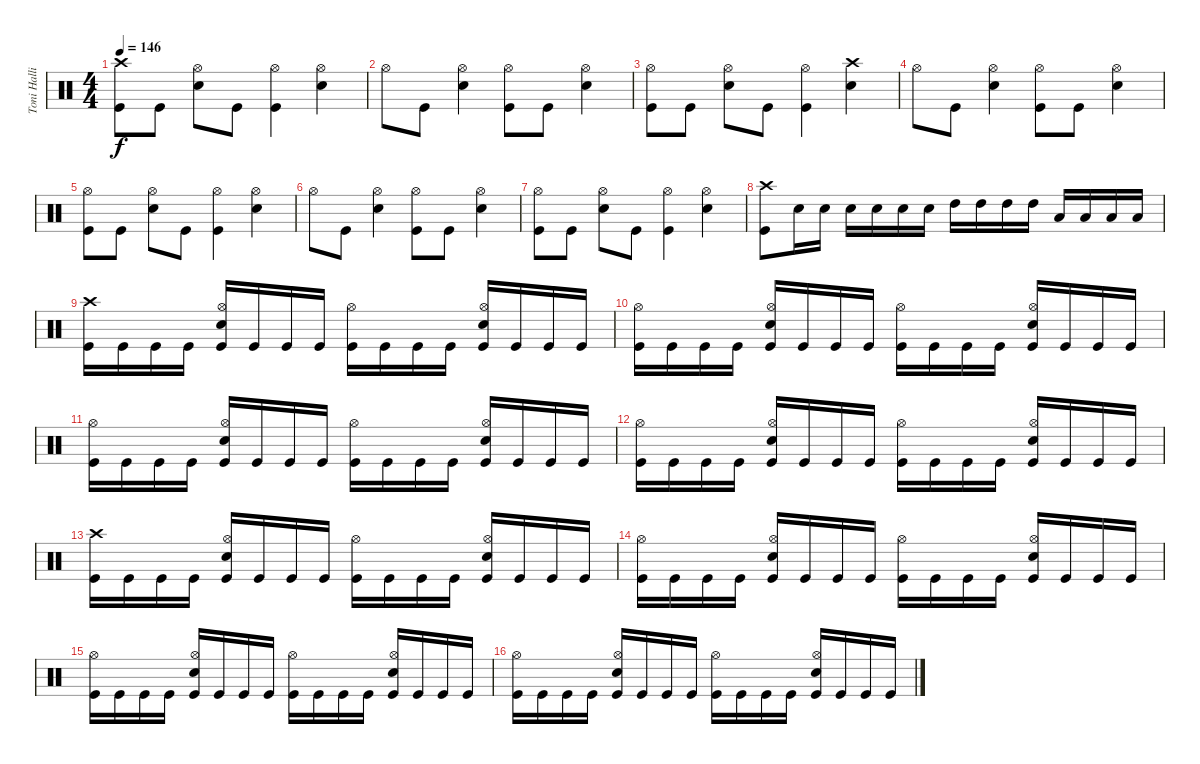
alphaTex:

\track ("Toni Hallio" "Toni Halli") {instrument percussion}
\staff {score}
\articulation defaults
\ts (4 4)
\tempo 146
\clef neutral
\ks c
("Crash high (hit)" "Kick (hit)").8{dy f} "Kick (hit)".8 ("Hi-Hat (open)" "Snare (hit) 2").8 "Kick (hit)".8 ("Hi-Hat (open)" "Kick (hit)").4 ("Hi-Hat (open)" "Snare (hit) 2").4 |
"Hi-Hat (open)".8 "Kick (hit)".8 ("Hi-Hat (open)" "Snare (hit) 2").4 ("Hi-Hat (open)" "Kick (hit)").8 "Kick (hit)".8 ("Hi-Hat (open)" "Snare (hit) 2").4 |
("Hi-Hat (open)" "Kick (hit)").8 "Kick (hit)".8 ("Hi-Hat (open)" "Snare (hit) 2").8 "Kick (hit)".8 ("Hi-Hat (open)" "Kick (hit)").4 ("Crash high (hit)" "Snare (hit) 2").4 |
"Hi-Hat (open)".8 "Kick (hit)".8 ("Hi-Hat (open)" "Snare (hit) 2").4 ("Hi-Hat (open)" "Kick (hit)").8 "Kick (hit)".8 ("Hi-Hat (open)" "Snare (hit) 2").4 |
("Hi-Hat (open)" "Kick (hit)").8 "Kick (hit)".8 ("Hi-Hat (open)" "Snare (hit) 2").8 "Kick (hit)".8 ("Hi-Hat (open)" "Kick (hit)").4 ("Hi-Hat (open)" "Snare (hit) 2").4 |
"Hi-Hat (open)".8 "Kick (hit)".8 ("Hi-Hat (open)" "Snare (hit) 2").4 ("Hi-Hat (open)" "Kick (hit)").8 "Kick (hit)".8 ("Hi-Hat (open)" "Snare (hit) 2").4 |
("Hi-Hat (open)" "Kick (hit)").8 "Kick (hit)".8 ("Hi-Hat (open)" "Snare (hit) 2").8 "Kick (hit)".8 ("Hi-Hat (open)" "Kick (hit)").4 ("Hi-Hat (open)" "Snare (hit) 2").4 |
("Crash high (hit)" "Kick (hit)").8 "Snare (hit) 2".16 "Snare (hit) 2".16 "Snare (hit) 2".16 "Snare (hit) 2".16 "Snare (hit) 2".16 "Snare (hit) 2".16 "High Tom (hit)".16 "High Tom (hit)".16 "High Tom (hit)".16 "High Tom (hit)".16 "Low Tom (hit)".16 "Low Tom (hit)".16 "Low Tom (hit)".16 "Low Tom (hit)".16 |
("Crash high (hit)" "Kick (hit)").16 "Kick (hit)".16 "Kick (hit)".16 "Kick (hit)".16 ("Hi-Hat (open)" "Snare (hit) 2" "Kick (hit)").16 "Kick (hit)".16 "Kick (hit)".16 "Kick (hit)".16 ("Hi-Hat (open)" "Kick (hit)").16 "Kick (hit)".16 "Kick (hit)".16 "Kick (hit)".16 ("Hi-Hat (open)" "Snare (hit) 2" "Kick (hit)").16 "Kick (hit)".16 "Kick (hit)".16 "Kick (hit)".16 |
("Hi-Hat (open)" "Kick (hit)").16 "Kick (hit)".16 "Kick (hit)".16 "Kick (hit)".16 ("Hi-Hat (open)" "Snare (hit) 2" "Kick (hit)").16 "Kick (hit)".16 "Kick (hit)".16 "Kick (hit)".16 ("Hi-Hat (open)" "Kick (hit)").16 "Kick (hit)".16 "Kick (hit)".16 "Kick (hit)".16 ("Hi-Hat (open)" "Snare (hit) 2" "Kick (hit)").16 "Kick (hit)".16 "Kick (hit)".16 "Kick (hit)".16 |
("Hi-Hat (open)" "Kick (hit)").16 "Kick (hit)".16 "Kick (hit)".16 "Kick (hit)".16 ("Hi-Hat (open)" "Snare (hit) 2" "Kick (hit)").16 "Kick (hit)".16 "Kick (hit)".16 "Kick (hit)".16 ("Hi-Hat (open)" "Kick (hit)").16 "Kick (hit)".16 "Kick (hit)".16 "Kick (hit)".16 ("Hi-Hat (open)" "Snare (hit) 2" "Kick (hit)").16 "Kick (hit)".16 "Kick (hit)".16 "Kick (hit)".16 |
("Hi-Hat (open)" "Kick (hit)").16 "Kick (hit)".16 "Kick (hit)".16 "Kick (hit)".16 ("Hi-Hat (open)" "Snare (hit) 2" "Kick (hit)").16 "Kick (hit)".16 "Kick (hit)".16 "Kick (hit)".16 ("Hi-Hat (open)" "Kick (hit)").16 "Kick (hit)".16 "Kick (hit)".16 "Kick (hit)".16 ("Hi-Hat (open)" "Snare (hit) 2" "Kick (hit)").16 "Kick (hit)".16 "Kick (hit)".16 "Kick (hit)".16 |
("Crash high (hit)" "Kick (hit)").16 "Kick (hit)".16 "Kick (hit)".16 "Kick (hit)".16 ("Hi-Hat (open)" "Snare (hit) 2" "Kick (hit)").16 "Kick (hit)".16 "Kick (hit)".16 "Kick (hit)".16 ("Hi-Hat (open)" "Kick (hit)").16 "Kick (hit)".16 "Kick (hit)".16 "Kick (hit)".16 ("Hi-Hat (open)" "Snare (hit) 2" "Kick (hit)").16 "Kick (hit)".16 "Kick (hit)".16 "Kick (hit)".16 |
("Hi-Hat (open)" "Kick (hit)").16 "Kick (hit)".16 "Kick (hit)".16 "Kick (hit)".16 ("Hi-Hat (open)" "Snare (hit) 2" "Kick (hit)").16 "Kick (hit)".16 "Kick (hit)".16 "Kick (hit)".16 ("Hi-Hat (open)" "Kick (hit)").16 "Kick (hit)".16 "Kick (hit)".16 "Kick (hit)".16 ("Hi-Hat (open)" "Snare (hit) 2" "Kick (hit)").16 "Kick (hit)".16 "Kick (hit)".16 "Kick (hit)".16 |
("Hi-Hat (open)" "Kick (hit)").16 "Kick (hit)".16 "Kick (hit)".16 "Kick (hit)".16 ("Hi-Hat (open)" "Snare (hit) 2" "Kick (hit)").16 "Kick (hit)".16 "Kick (hit)".16 "Kick (hit)".16 ("Hi-Hat (open)" "Kick (hit)").16 "Kick (hit)".16 "Kick (hit)".16 "Kick (hit)".16 ("Hi-Hat (open)" "Snare (hit) 2" "Kick (hit)").16 "Kick (hit)".16 "Kick (hit)".16 "Kick (hit)".16 |
("Hi-Hat (open)" "Kick (hit)").16 "Kick (hit)".16 "Kick (hit)".16 "Kick (hit)".16 ("Hi-Hat (open)" "Snare (hit) 2" "Kick (hit)").16 "Kick (hit)".16 "Kick (hit)".16 "Kick (hit)".16 ("Hi-Hat (open)" "Kick (hit)").16 "Kick (hit)".16 "Kick (hit)".16 "Kick (hit)".16 ("Hi-Hat (open)" "Snare (hit) 2" "Kick (hit)").16 "Kick (hit)".16 "Kick (hit)".16 "Kick (hit)".16
